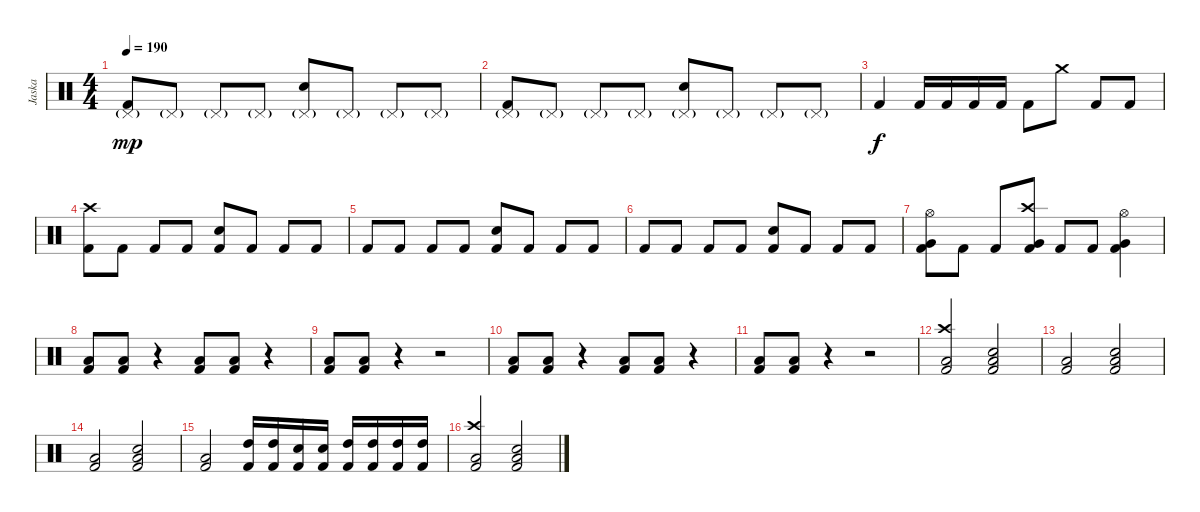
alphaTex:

\track ("Jaska" "Jaska") {instrument percussion}
\staff {score}
\articulation defaults
\ts (4 4)
\tempo 190
\clef neutral
\ks c
("Kick (hit) 2" "Pedal Hi-Hat (hit)"{g}).8{dy mp} "Pedal Hi-Hat (hit)"{g}.8 "Pedal Hi-Hat (hit)"{g}.8 "Pedal Hi-Hat (hit)"{g}.8 ("Pedal Hi-Hat (hit)"{g} "Electric Snare (hit)").8 "Pedal Hi-Hat (hit)"{g}.8 "Pedal Hi-Hat (hit)"{g}.8 "Pedal Hi-Hat (hit)"{g}.8 |
("Kick (hit) 2" "Pedal Hi-Hat (hit)"{g}).8 "Pedal Hi-Hat (hit)"{g}.8 "Pedal Hi-Hat (hit)"{g}.8 "Pedal Hi-Hat (hit)"{g}.8 ("Pedal Hi-Hat (hit)"{g} "Electric Snare (hit)").8 "Pedal Hi-Hat (hit)"{g}.8 "Pedal Hi-Hat (hit)"{g}.8 "Pedal Hi-Hat (hit)"{g}.8 |
"Kick (hit) 2".4{dy f} "Kick (hit) 2".16 "Kick (hit) 2".16 "Kick (hit) 2".16 "Kick (hit) 2".16 "Kick (hit) 2".8 "Crash medium (hit)".8 "Kick (hit) 2".8 "Kick (hit) 2".8 |
("Kick (hit) 2" "Crash high (hit)").8 "Kick (hit) 2".8 "Kick (hit) 2".8 "Kick (hit) 2".8 ("Kick (hit) 2" "Electric Snare (hit)").8 "Kick (hit) 2".8 "Kick (hit) 2".8 "Kick (hit) 2".8 |
"Kick (hit) 2".8 "Kick (hit) 2".8 "Kick (hit) 2".8 "Kick (hit) 2".8 ("Kick (hit) 2" "Electric Snare (hit)").8 "Kick (hit) 2".8 "Kick (hit) 2".8 "Kick (hit) 2".8 |
"Kick (hit) 2".8 "Kick (hit) 2".8 "Kick (hit) 2".8 "Kick (hit) 2".8 ("Kick (hit) 2" "Electric Snare (hit)").8 "Kick (hit) 2".8 "Kick (hit) 2".8 "Kick (hit) 2".8 |
("Kick (hit) 2" "Very Low Tom (hit)" "Hi-Hat (open)").8 "Kick (hit) 2".8 "Kick (hit) 2".8 ("Kick (hit) 2" "Very Low Tom (hit)" "Crash high (hit)").8 "Kick (hit) 2".8 "Kick (hit) 2".8 ("Kick (hit) 2" "Very Low Tom (hit)" "Hi-Hat (open)").4 |
("Kick (hit) 2" "Low Tom (hit)").8 ("Kick (hit) 2" "Low Tom (hit)").8 r.4 ("Kick (hit) 2" "Low Tom (hit)").8 ("Kick (hit) 2" "Low Tom (hit)").8 r.4 |
("Kick (hit) 2" "Low Tom (hit)").8 ("Kick (hit) 2" "Low Tom (hit)").8 r.4 r.2 |
("Kick (hit) 2" "Low Tom (hit)").8 ("Kick (hit) 2" "Low Tom (hit)").8 r.4 ("Kick (hit) 2" "Low Tom (hit)").8 ("Kick (hit) 2" "Low Tom (hit)").8 r.4 |
("Kick (hit) 2" "Low Tom (hit)").8 ("Kick (hit) 2" "Low Tom (hit)").8 r.4 r.2 |
("Kick (hit) 2" "Low Tom (hit)" "Crash high (hit)").2 ("Kick (hit) 2" "Snare (hit) 2" "Low Tom (hit)").2 |
("Kick (hit) 2" "Low Tom (hit)").2 ("Kick (hit) 2" "Snare (hit) 2" "Low Tom (hit)").2 |
("Kick (hit) 2" "Low Tom (hit)").2 ("Kick (hit) 2" "Snare (hit) 2" "Low Tom (hit)").2 |
("Kick (hit) 2" "Low Tom (hit)").2 ("Kick (hit) 2" "High Tom (hit)").16 ("Kick (hit) 2" "High Tom (hit)").16 ("Kick (hit) 2" "Electric Snare (hit)").16 ("Kick (hit) 2" "Electric Snare (hit)").16 ("Kick (hit) 2" "High Tom (hit)").16 ("Kick (hit) 2" "High Tom (hit)").16 ("Kick (hit) 2" "High Tom (hit)").16 ("Kick (hit) 2" "High Tom (hit)").16 |
("Kick (hit) 2" "Crash high (hit)" "Low Tom (hit)").2 ("Kick (hit) 2" "Snare (hit) 2" "Low Tom (hit)").2
